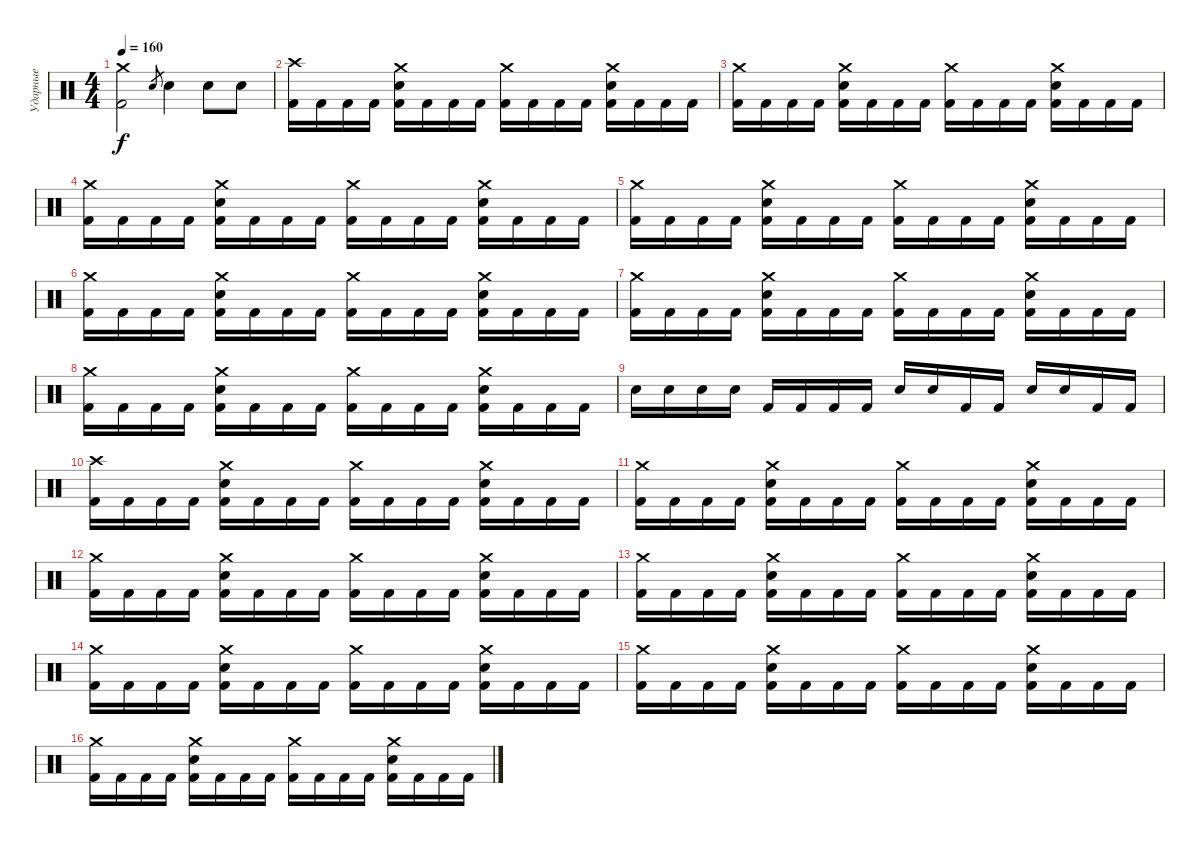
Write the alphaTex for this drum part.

\track ("Ударные" "Ударные") {instrument percussion}
\staff {score}
\articulation defaults
\ts (4 4)
\tempo 160
\clef neutral
\ks c
("Crash medium (hit)" "Kick (hit) 2").2{dy f} "Electric Snare (hit)".8{gr} "Electric Snare (hit)".4 "Electric Snare (hit)".8 "Electric Snare (hit)".8 |
("Crash high (hit)" "Kick (hit) 2").16 "Kick (hit) 2".16 "Kick (hit) 2".16 "Kick (hit) 2".16 ("Crash medium (hit)" "Electric Snare (hit)" "Kick (hit) 2").16 "Kick (hit) 2".16 "Kick (hit) 2".16 "Kick (hit) 2".16 ("Crash medium (hit)" "Kick (hit) 2").16 "Kick (hit) 2".16 "Kick (hit) 2".16 "Kick (hit) 2".16 ("Crash medium (hit)" "Electric Snare (hit)" "Kick (hit) 2").16 "Kick (hit) 2".16 "Kick (hit) 2".16 "Kick (hit) 2".16 |
("Crash medium (hit)" "Kick (hit) 2").16 "Kick (hit) 2".16 "Kick (hit) 2".16 "Kick (hit) 2".16 ("Crash medium (hit)" "Electric Snare (hit)" "Kick (hit) 2").16 "Kick (hit) 2".16 "Kick (hit) 2".16 "Kick (hit) 2".16 ("Crash medium (hit)" "Kick (hit) 2").16 "Kick (hit) 2".16 "Kick (hit) 2".16 "Kick (hit) 2".16 ("Crash medium (hit)" "Electric Snare (hit)" "Kick (hit) 2").16 "Kick (hit) 2".16 "Kick (hit) 2".16 "Kick (hit) 2".16 |
("Crash medium (hit)" "Kick (hit) 2").16 "Kick (hit) 2".16 "Kick (hit) 2".16 "Kick (hit) 2".16 ("Crash medium (hit)" "Electric Snare (hit)" "Kick (hit) 2").16 "Kick (hit) 2".16 "Kick (hit) 2".16 "Kick (hit) 2".16 ("Crash medium (hit)" "Kick (hit) 2").16 "Kick (hit) 2".16 "Kick (hit) 2".16 "Kick (hit) 2".16 ("Crash medium (hit)" "Electric Snare (hit)" "Kick (hit) 2").16 "Kick (hit) 2".16 "Kick (hit) 2".16 "Kick (hit) 2".16 |
("Crash medium (hit)" "Kick (hit) 2").16 "Kick (hit) 2".16 "Kick (hit) 2".16 "Kick (hit) 2".16 ("Crash medium (hit)" "Electric Snare (hit)" "Kick (hit) 2").16 "Kick (hit) 2".16 "Kick (hit) 2".16 "Kick (hit) 2".16 ("Crash medium (hit)" "Kick (hit) 2").16 "Kick (hit) 2".16 "Kick (hit) 2".16 "Kick (hit) 2".16 ("Crash medium (hit)" "Electric Snare (hit)" "Kick (hit) 2").16 "Kick (hit) 2".16 "Kick (hit) 2".16 "Kick (hit) 2".16 |
("Crash medium (hit)" "Kick (hit) 2").16 "Kick (hit) 2".16 "Kick (hit) 2".16 "Kick (hit) 2".16 ("Crash medium (hit)" "Electric Snare (hit)" "Kick (hit) 2").16 "Kick (hit) 2".16 "Kick (hit) 2".16 "Kick (hit) 2".16 ("Crash medium (hit)" "Kick (hit) 2").16 "Kick (hit) 2".16 "Kick (hit) 2".16 "Kick (hit) 2".16 ("Crash medium (hit)" "Electric Snare (hit)" "Kick (hit) 2").16 "Kick (hit) 2".16 "Kick (hit) 2".16 "Kick (hit) 2".16 |
("Crash medium (hit)" "Kick (hit) 2").16 "Kick (hit) 2".16 "Kick (hit) 2".16 "Kick (hit) 2".16 ("Crash medium (hit)" "Electric Snare (hit)" "Kick (hit) 2").16 "Kick (hit) 2".16 "Kick (hit) 2".16 "Kick (hit) 2".16 ("Crash medium (hit)" "Kick (hit) 2").16 "Kick (hit) 2".16 "Kick (hit) 2".16 "Kick (hit) 2".16 ("Crash medium (hit)" "Electric Snare (hit)" "Kick (hit) 2").16 "Kick (hit) 2".16 "Kick (hit) 2".16 "Kick (hit) 2".16 |
("Crash medium (hit)" "Kick (hit) 2").16 "Kick (hit) 2".16 "Kick (hit) 2".16 "Kick (hit) 2".16 ("Crash medium (hit)" "Electric Snare (hit)" "Kick (hit) 2").16 "Kick (hit) 2".16 "Kick (hit) 2".16 "Kick (hit) 2".16 ("Crash medium (hit)" "Kick (hit) 2").16 "Kick (hit) 2".16 "Kick (hit) 2".16 "Kick (hit) 2".16 ("Crash medium (hit)" "Electric Snare (hit)" "Kick (hit) 2").16 "Kick (hit) 2".16 "Kick (hit) 2".16 "Kick (hit) 2".16 |
"Electric Snare (hit)".16 "Electric Snare (hit)".16 "Electric Snare (hit)".16 "Electric Snare (hit)".16 "Kick (hit) 2".16 "Kick (hit) 2".16 "Kick (hit) 2".16 "Kick (hit) 2".16 "Electric Snare (hit)".16 "Electric Snare (hit)".16 "Kick (hit) 2".16 "Kick (hit) 2".16 "Electric Snare (hit)".16 "Electric Snare (hit)".16 "Kick (hit) 2".16 "Kick (hit) 2".16 |
("Crash high (hit)" "Kick (hit) 2").16 "Kick (hit) 2".16 "Kick (hit) 2".16 "Kick (hit) 2".16 ("Crash medium (hit)" "Electric Snare (hit)" "Kick (hit) 2").16 "Kick (hit) 2".16 "Kick (hit) 2".16 "Kick (hit) 2".16 ("Crash medium (hit)" "Kick (hit) 2").16 "Kick (hit) 2".16 "Kick (hit) 2".16 "Kick (hit) 2".16 ("Crash medium (hit)" "Electric Snare (hit)" "Kick (hit) 2").16 "Kick (hit) 2".16 "Kick (hit) 2".16 "Kick (hit) 2".16 |
("Crash medium (hit)" "Kick (hit) 2").16 "Kick (hit) 2".16 "Kick (hit) 2".16 "Kick (hit) 2".16 ("Crash medium (hit)" "Electric Snare (hit)" "Kick (hit) 2").16 "Kick (hit) 2".16 "Kick (hit) 2".16 "Kick (hit) 2".16 ("Crash medium (hit)" "Kick (hit) 2").16 "Kick (hit) 2".16 "Kick (hit) 2".16 "Kick (hit) 2".16 ("Crash medium (hit)" "Electric Snare (hit)" "Kick (hit) 2").16 "Kick (hit) 2".16 "Kick (hit) 2".16 "Kick (hit) 2".16 |
("Crash medium (hit)" "Kick (hit) 2").16 "Kick (hit) 2".16 "Kick (hit) 2".16 "Kick (hit) 2".16 ("Crash medium (hit)" "Electric Snare (hit)" "Kick (hit) 2").16 "Kick (hit) 2".16 "Kick (hit) 2".16 "Kick (hit) 2".16 ("Crash medium (hit)" "Kick (hit) 2").16 "Kick (hit) 2".16 "Kick (hit) 2".16 "Kick (hit) 2".16 ("Crash medium (hit)" "Electric Snare (hit)" "Kick (hit) 2").16 "Kick (hit) 2".16 "Kick (hit) 2".16 "Kick (hit) 2".16 |
("Crash medium (hit)" "Kick (hit) 2").16 "Kick (hit) 2".16 "Kick (hit) 2".16 "Kick (hit) 2".16 ("Crash medium (hit)" "Electric Snare (hit)" "Kick (hit) 2").16 "Kick (hit) 2".16 "Kick (hit) 2".16 "Kick (hit) 2".16 ("Crash medium (hit)" "Kick (hit) 2").16 "Kick (hit) 2".16 "Kick (hit) 2".16 "Kick (hit) 2".16 ("Crash medium (hit)" "Electric Snare (hit)" "Kick (hit) 2").16 "Kick (hit) 2".16 "Kick (hit) 2".16 "Kick (hit) 2".16 |
("Crash medium (hit)" "Kick (hit) 2").16 "Kick (hit) 2".16 "Kick (hit) 2".16 "Kick (hit) 2".16 ("Crash medium (hit)" "Electric Snare (hit)" "Kick (hit) 2").16 "Kick (hit) 2".16 "Kick (hit) 2".16 "Kick (hit) 2".16 ("Crash medium (hit)" "Kick (hit) 2").16 "Kick (hit) 2".16 "Kick (hit) 2".16 "Kick (hit) 2".16 ("Crash medium (hit)" "Electric Snare (hit)" "Kick (hit) 2").16 "Kick (hit) 2".16 "Kick (hit) 2".16 "Kick (hit) 2".16 |
("Crash medium (hit)" "Kick (hit) 2").16 "Kick (hit) 2".16 "Kick (hit) 2".16 "Kick (hit) 2".16 ("Crash medium (hit)" "Electric Snare (hit)" "Kick (hit) 2").16 "Kick (hit) 2".16 "Kick (hit) 2".16 "Kick (hit) 2".16 ("Crash medium (hit)" "Kick (hit) 2").16 "Kick (hit) 2".16 "Kick (hit) 2".16 "Kick (hit) 2".16 ("Crash medium (hit)" "Electric Snare (hit)" "Kick (hit) 2").16 "Kick (hit) 2".16 "Kick (hit) 2".16 "Kick (hit) 2".16 |
("Crash medium (hit)" "Kick (hit) 2").16 "Kick (hit) 2".16 "Kick (hit) 2".16 "Kick (hit) 2".16 ("Crash medium (hit)" "Electric Snare (hit)" "Kick (hit) 2").16 "Kick (hit) 2".16 "Kick (hit) 2".16 "Kick (hit) 2".16 ("Crash medium (hit)" "Kick (hit) 2").16 "Kick (hit) 2".16 "Kick (hit) 2".16 "Kick (hit) 2".16 ("Crash medium (hit)" "Electric Snare (hit)" "Kick (hit) 2").16 "Kick (hit) 2".16 "Kick (hit) 2".16 "Kick (hit) 2".16
